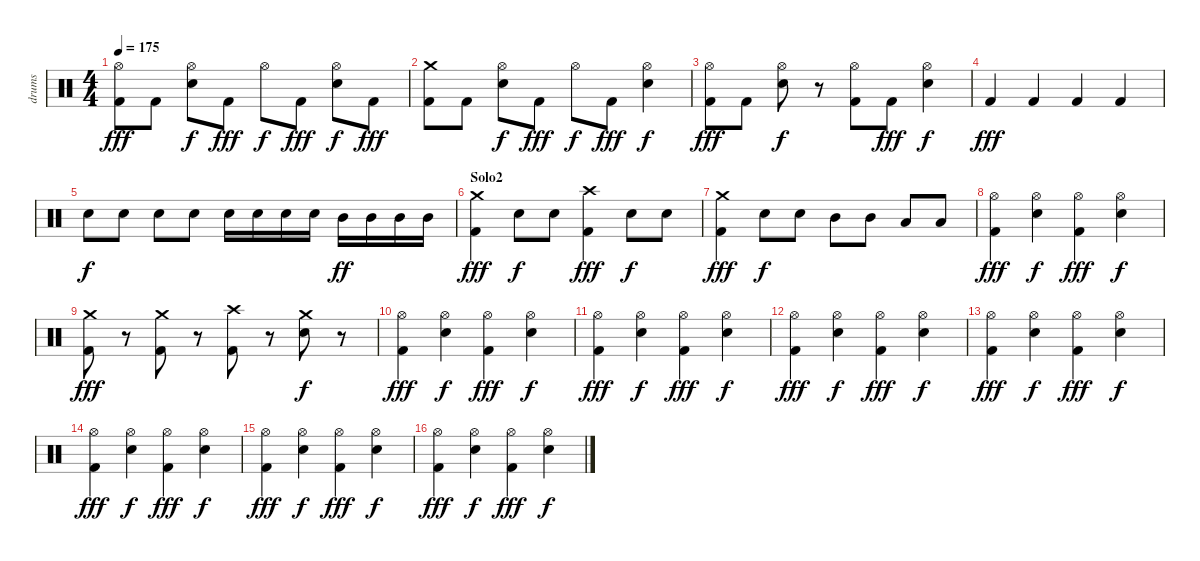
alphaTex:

\track ("drums" "drums") {instrument percussion}
\staff {score}
\articulation defaults
\ts (4 4)
\tempo 175
\clef neutral
\ks c
("Hi-Hat (open)" "Kick (hit) 2").8{dy fff} "Kick (hit) 2".8 ("Hi-Hat (open)" "Snare (hit) 2").8{dy f} "Kick (hit) 2".8{dy fff} "Hi-Hat (open)".8{dy f} "Kick (hit) 2".8{dy fff} ("Hi-Hat (open)" "Snare (hit) 2").8{dy f} "Kick (hit) 2".8{dy fff} |
("Crash medium (hit)" "Kick (hit) 2").8 "Kick (hit) 2".8 ("Hi-Hat (open)" "Snare (hit) 2").8{dy f} "Kick (hit) 2".8{dy fff} "Hi-Hat (open)".8{dy f} "Kick (hit) 2".8{dy fff} ("Hi-Hat (open)" "Snare (hit) 2").4{dy f} |
("Hi-Hat (open)" "Kick (hit) 2").8{dy fff} "Kick (hit) 2".8 ("Hi-Hat (open)" "Snare (hit) 2").8{dy f} r.8 ("Hi-Hat (open)" "Kick (hit) 2").8 "Kick (hit) 2".8{dy fff} ("Hi-Hat (open)" "Snare (hit) 2").4{dy f} |
"Kick (hit) 2".4{dy fff} "Kick (hit) 2".4 "Kick (hit) 2".4 "Kick (hit) 2".4 |
"Snare (hit) 2".8{dy f} "Snare (hit) 2".8 "Snare (hit) 2".8 "Snare (hit) 2".8 "Snare (hit) 2".16 "Snare (hit) 2".16 "Snare (hit) 2".16 "Snare (hit) 2".16 "Mid Tom (hit)".16{dy ff} "Mid Tom (hit)".16 "Mid Tom (hit)".16 "Mid Tom (hit)".16 |
\section ("" "Solo2")
("Crash medium (hit)" "Kick (hit) 2").4{dy fff} "Snare (hit) 2".8{dy f} "Snare (hit) 2".8 ("Crash high (hit)" "Kick (hit) 2").4{dy fff} "Snare (hit) 2".8{dy f} "Snare (hit) 2".8 |
("Crash medium (hit)" "Kick (hit) 2").4{dy fff} "Snare (hit) 2".8{dy f} "Snare (hit) 2".8 "Mid Tom (hit)".8 "Mid Tom (hit)".8 "Low Floor Tom (hit)".8 "Low Floor Tom (hit)".8 |
("Hi-Hat (open)" "Kick (hit) 2").4{dy fff} ("Hi-Hat (open)" "Snare (hit) 2").4{dy f} ("Hi-Hat (open)" "Kick (hit) 2").4{dy fff} ("Hi-Hat (open)" "Snare (hit) 2").4{dy f} |
("Crash medium (hit)" "Kick (hit) 2").8{dy fff} r.8 ("Crash medium (hit)" "Kick (hit) 2").8 r.8 ("Crash high (hit)" "Kick (hit) 2").8 r.8 ("Crash medium (hit)" "Snare (hit) 2").8{dy f} r.8 |
("Hi-Hat (open)" "Kick (hit) 2").4{dy fff} ("Hi-Hat (open)" "Snare (hit) 2").4{dy f} ("Hi-Hat (open)" "Kick (hit) 2").4{dy fff} ("Hi-Hat (open)" "Snare (hit) 2").4{dy f} |
("Hi-Hat (open)" "Kick (hit) 2").4{dy fff} ("Hi-Hat (open)" "Snare (hit) 2").4{dy f} ("Hi-Hat (open)" "Kick (hit) 2").4{dy fff} ("Hi-Hat (open)" "Snare (hit) 2").4{dy f} |
("Hi-Hat (open)" "Kick (hit) 2").4{dy fff} ("Hi-Hat (open)" "Snare (hit) 2").4{dy f} ("Hi-Hat (open)" "Kick (hit) 2").4{dy fff} ("Hi-Hat (open)" "Snare (hit) 2").4{dy f} |
("Hi-Hat (open)" "Kick (hit) 2").4{dy fff} ("Hi-Hat (open)" "Snare (hit) 2").4{dy f} ("Hi-Hat (open)" "Kick (hit) 2").4{dy fff} ("Hi-Hat (open)" "Snare (hit) 2").4{dy f} |
("Hi-Hat (open)" "Kick (hit) 2").4{dy fff} ("Hi-Hat (open)" "Snare (hit) 2").4{dy f} ("Hi-Hat (open)" "Kick (hit) 2").4{dy fff} ("Hi-Hat (open)" "Snare (hit) 2").4{dy f} |
("Hi-Hat (open)" "Kick (hit) 2").4{dy fff} ("Hi-Hat (open)" "Snare (hit) 2").4{dy f} ("Hi-Hat (open)" "Kick (hit) 2").4{dy fff} ("Hi-Hat (open)" "Snare (hit) 2").4{dy f} |
("Hi-Hat (open)" "Kick (hit) 2").4{dy fff} ("Hi-Hat (open)" "Snare (hit) 2").4{dy f} ("Hi-Hat (open)" "Kick (hit) 2").4{dy fff} ("Hi-Hat (open)" "Snare (hit) 2").4{dy f}
